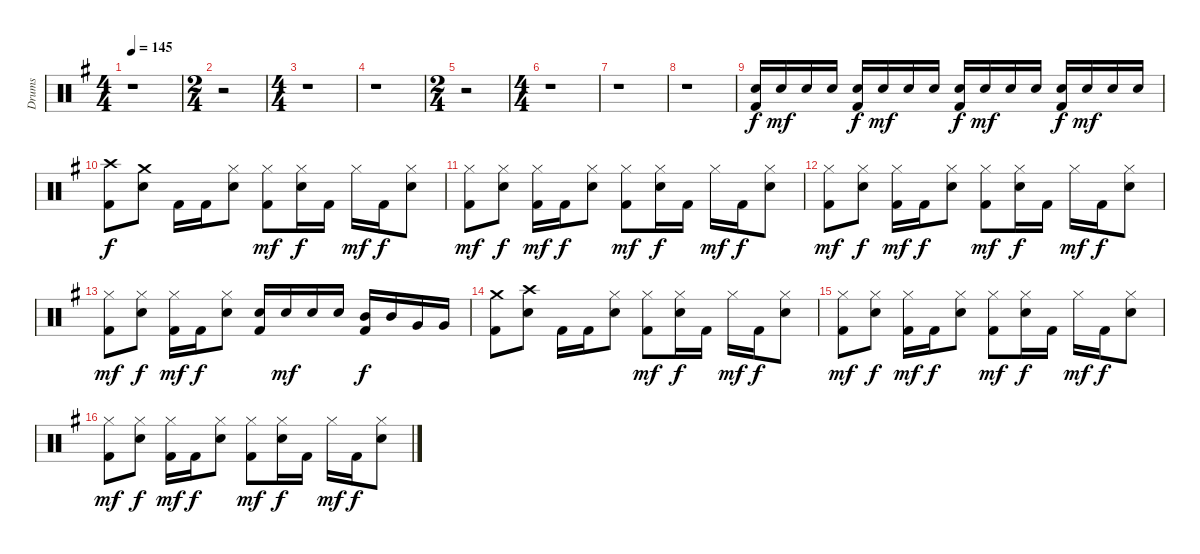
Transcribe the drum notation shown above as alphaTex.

\track ("Drums" "Drums") {instrument percussion}
\staff {score}
\articulation defaults
\ts (4 4)
\tempo 145
\clef neutral
\ks eminor
r.1{dy f} |
\ts (2 4)
r.2 |
\ts (4 4)
r.1 |
r.1 |
\ts (2 4)
r.2 |
\ts (4 4)
r.1 |
r.1 |
r.1 |
("Electric Snare (hit)" "Kick (hit) 2").16 "Electric Snare (hit)".16{dy mf} "Electric Snare (hit)".16 "Electric Snare (hit)".16 ("Electric Snare (hit)" "Kick (hit) 2").16{dy f} "Electric Snare (hit)".16{dy mf} "Electric Snare (hit)".16 "Electric Snare (hit)".16 ("Electric Snare (hit)" "Kick (hit) 2").16{dy f} "Electric Snare (hit)".16{dy mf} "Electric Snare (hit)".16 "Electric Snare (hit)".16 ("Electric Snare (hit)" "Kick (hit) 2").16{dy f} "Electric Snare (hit)".16{dy mf} "Electric Snare (hit)".16 "Electric Snare (hit)".16 |
("Crash high (hit)" "Kick (hit) 2").8{dy f} ("Crash medium (hit)" "Electric Snare (hit)").8 "Kick (hit) 2".16 "Kick (hit) 2".16 ("Hi-Hat (closed)" "Electric Snare (hit)").8 ("Hi-Hat (closed)" "Kick (hit) 2").8{dy mf} ("Hi-Hat (closed)" "Electric Snare (hit)").16{dy f} "Kick (hit) 2".16 "Hi-Hat (closed)".16{dy mf} "Kick (hit) 2".16{dy f} ("Hi-Hat (closed)" "Electric Snare (hit)").8 |
("Hi-Hat (closed)" "Kick (hit) 2").8{dy mf} ("Hi-Hat (closed)" "Electric Snare (hit)").8{dy f} ("Hi-Hat (closed)" "Kick (hit) 2").16{dy mf} "Kick (hit) 2".16{dy f} ("Hi-Hat (closed)" "Electric Snare (hit)").8 ("Hi-Hat (closed)" "Kick (hit) 2").8{dy mf} ("Hi-Hat (closed)" "Electric Snare (hit)").16{dy f} "Kick (hit) 2".16 "Hi-Hat (closed)".16{dy mf} "Kick (hit) 2".16{dy f} ("Hi-Hat (closed)" "Electric Snare (hit)").8 |
("Hi-Hat (closed)" "Kick (hit) 2").8{dy mf} ("Hi-Hat (closed)" "Electric Snare (hit)").8{dy f} ("Hi-Hat (closed)" "Kick (hit) 2").16{dy mf} "Kick (hit) 2".16{dy f} ("Hi-Hat (closed)" "Electric Snare (hit)").8 ("Hi-Hat (closed)" "Kick (hit) 2").8{dy mf} ("Hi-Hat (closed)" "Electric Snare (hit)").16{dy f} "Kick (hit) 2".16 "Hi-Hat (closed)".16{dy mf} "Kick (hit) 2".16{dy f} ("Hi-Hat (closed)" "Electric Snare (hit)").8 |
("Hi-Hat (closed)" "Kick (hit) 2").8{dy mf} ("Hi-Hat (closed)" "Electric Snare (hit)").8{dy f} ("Hi-Hat (closed)" "Kick (hit) 2").16{dy mf} "Kick (hit) 2".16{dy f} ("Hi-Hat (closed)" "Electric Snare (hit)").8 ("Electric Snare (hit)" "Kick (hit) 2").16 "Electric Snare (hit)".16{dy mf} "Electric Snare (hit)".16 "Electric Snare (hit)".16 ("Mid Tom (hit)" "Kick (hit) 2").16{dy f} "Mid Tom (hit)".16 "Very Low Tom (hit)".16 "Very Low Tom (hit)".16 |
("Crash medium (hit)" "Kick (hit) 2").8 ("Crash high (hit)" "Electric Snare (hit)").8 "Kick (hit) 2".16 "Kick (hit) 2".16 ("Hi-Hat (closed)" "Electric Snare (hit)").8 ("Hi-Hat (closed)" "Kick (hit) 2").8{dy mf} ("Hi-Hat (closed)" "Electric Snare (hit)").16{dy f} "Kick (hit) 2".16 "Hi-Hat (closed)".16{dy mf} "Kick (hit) 2".16{dy f} ("Hi-Hat (closed)" "Electric Snare (hit)").8 |
("Hi-Hat (closed)" "Kick (hit) 2").8{dy mf} ("Hi-Hat (closed)" "Electric Snare (hit)").8{dy f} ("Hi-Hat (closed)" "Kick (hit) 2").16{dy mf} "Kick (hit) 2".16{dy f} ("Hi-Hat (closed)" "Electric Snare (hit)").8 ("Hi-Hat (closed)" "Kick (hit) 2").8{dy mf} ("Hi-Hat (closed)" "Electric Snare (hit)").16{dy f} "Kick (hit) 2".16 "Hi-Hat (closed)".16{dy mf} "Kick (hit) 2".16{dy f} ("Hi-Hat (closed)" "Electric Snare (hit)").8 |
("Hi-Hat (closed)" "Kick (hit) 2").8{dy mf} ("Hi-Hat (closed)" "Electric Snare (hit)").8{dy f} ("Hi-Hat (closed)" "Kick (hit) 2").16{dy mf} "Kick (hit) 2".16{dy f} ("Hi-Hat (closed)" "Electric Snare (hit)").8 ("Hi-Hat (closed)" "Kick (hit) 2").8{dy mf} ("Hi-Hat (closed)" "Electric Snare (hit)").16{dy f} "Kick (hit) 2".16 "Hi-Hat (closed)".16{dy mf} "Kick (hit) 2".16{dy f} ("Hi-Hat (closed)" "Electric Snare (hit)").8
